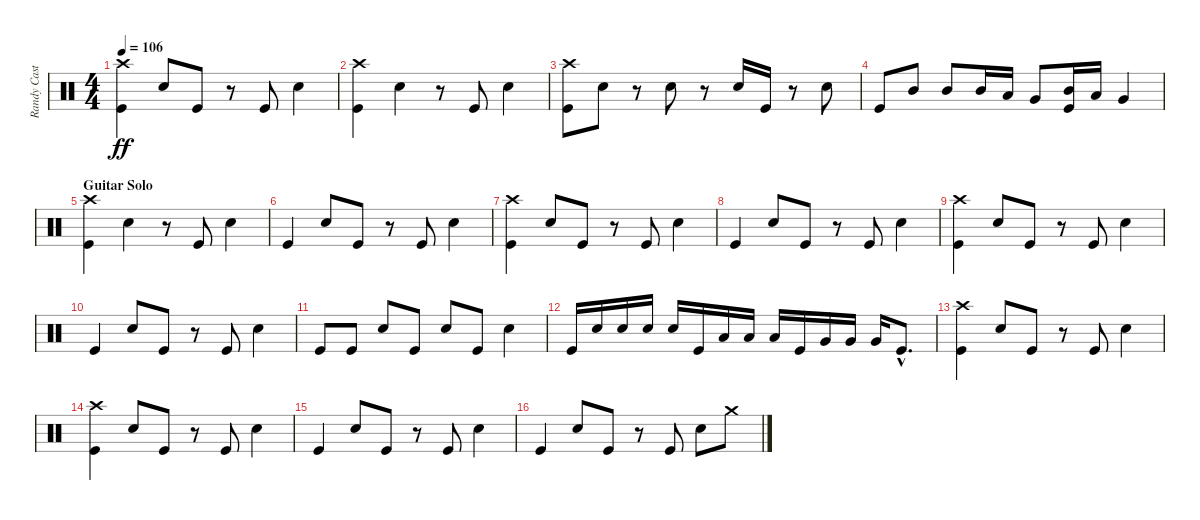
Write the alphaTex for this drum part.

\track ("Randy Castillo" "Randy Cast") {instrument percussion}
\staff {score}
\articulation defaults
\ts (4 4)
\tempo 106
\clef neutral
\ks c
("Crash high (hit)" "Kick (hit)").4{dy ff} "Snare (hit) 2".8 "Kick (hit)".8 r.8 "Kick (hit)".8 "Snare (hit) 2".4 |
("Crash high (hit)" "Kick (hit)").4 "Snare (hit) 2".4 r.8 "Kick (hit)".8 "Snare (hit) 2".4 |
("Crash high (hit)" "Kick (hit)").8 "Snare (hit) 2".8 r.8 "Snare (hit) 2".8 r.8 "Snare (hit) 2".16 "Kick (hit)".16 r.8 "Snare (hit) 2".8 |
"Kick (hit)".8 "Mid Tom (hit)".8 "Mid Tom (hit)".8 "Mid Tom (hit)".16 "Low Tom (hit)".16 "Very Low Tom (hit)".8 ("Mid Tom (hit)" "Kick (hit)").16 "Low Tom (hit)".16 "Very Low Tom (hit)".4 |
\section ("" "Guitar Solo")
("Crash high (hit)" "Kick (hit)").4 "Snare (hit) 2".4 r.8 "Kick (hit)".8 "Snare (hit) 2".4 |
"Kick (hit)".4 "Snare (hit) 2".8 "Kick (hit)".8 r.8 "Kick (hit)".8 "Snare (hit) 2".4 |
("Crash high (hit)" "Kick (hit)").4 "Snare (hit) 2".8 "Kick (hit)".8 r.8 "Kick (hit)".8 "Snare (hit) 2".4 |
"Kick (hit)".4 "Snare (hit) 2".8 "Kick (hit)".8 r.8 "Kick (hit)".8 "Snare (hit) 2".4 |
("Crash high (hit)" "Kick (hit)").4 "Snare (hit) 2".8 "Kick (hit)".8 r.8 "Kick (hit)".8 "Snare (hit) 2".4 |
"Kick (hit)".4 "Snare (hit) 2".8 "Kick (hit)".8 r.8 "Kick (hit)".8 "Snare (hit) 2".4 |
"Kick (hit)".8 "Kick (hit)".8 "Snare (hit) 2".8 "Kick (hit)".8 "Snare (hit) 2".8 "Kick (hit)".8 "Snare (hit) 2".4 |
"Kick (hit)".16 "Snare (hit) 2".16 "Snare (hit) 2".16 "Snare (hit) 2".16 "Snare (hit) 2".16 "Kick (hit)".16 "Low Tom (hit)".16 "Low Tom (hit)".16 "Low Tom (hit)".16 "Kick (hit)".16 "Very Low Tom (hit)".16 "Very Low Tom (hit)".16 "Very Low Tom (hit)".16 "Kick (hit)"{hac}.8{d} |
("Crash high (hit)" "Kick (hit)").4 "Snare (hit) 2".8 "Kick (hit)".8 r.8 "Kick (hit)".8 "Snare (hit) 2".4 |
("Crash high (hit)" "Kick (hit)").4 "Snare (hit) 2".8 "Kick (hit)".8 r.8 "Kick (hit)".8 "Snare (hit) 2".4 |
"Kick (hit)".4 "Snare (hit) 2".8 "Kick (hit)".8 r.8 "Kick (hit)".8 "Snare (hit) 2".4 |
"Kick (hit)".4 "Snare (hit) 2".8 "Kick (hit)".8 r.8 "Kick (hit)".8 "Snare (hit) 2".8 "Crash medium (hit)".8
